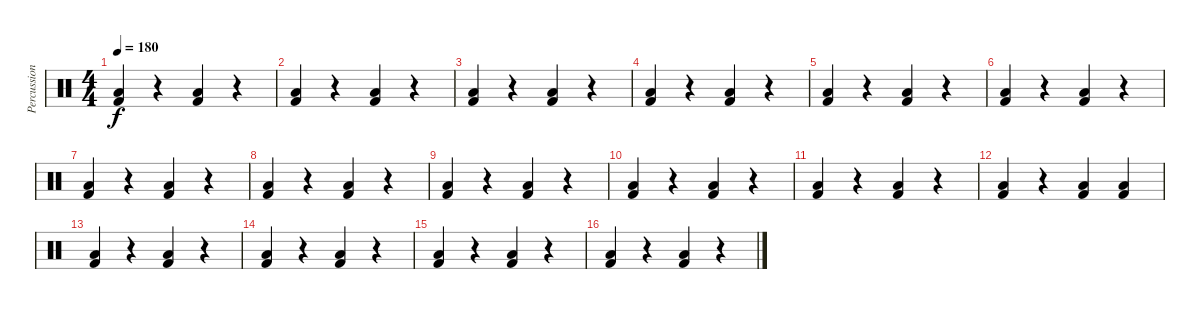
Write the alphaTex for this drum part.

\track ("Percussion" "Percussion") {instrument percussion}
\staff {score}
\articulation defaults
\ts (4 4)
\tempo 180
\clef neutral
\ks c
("Low Floor Tom (hit)" "Kick (hit) 2").4{dy f} r.4 ("Low Floor Tom (hit)" "Kick (hit) 2").4 r.4 |
("Low Floor Tom (hit)" "Kick (hit) 2").4 r.4 ("Low Floor Tom (hit)" "Kick (hit) 2").4 r.4 |
("Low Floor Tom (hit)" "Kick (hit) 2").4 r.4 ("Low Floor Tom (hit)" "Kick (hit) 2").4 r.4 |
("Low Floor Tom (hit)" "Kick (hit) 2").4 r.4 ("Low Floor Tom (hit)" "Kick (hit) 2").4 r.4 |
("Low Floor Tom (hit)" "Kick (hit) 2").4 r.4 ("Low Floor Tom (hit)" "Kick (hit) 2").4 r.4 |
("Low Floor Tom (hit)" "Kick (hit) 2").4 r.4 ("Low Floor Tom (hit)" "Kick (hit) 2").4 r.4 |
("Low Floor Tom (hit)" "Kick (hit) 2").4 r.4 ("Low Floor Tom (hit)" "Kick (hit) 2").4 r.4 |
("Low Floor Tom (hit)" "Kick (hit) 2").4 r.4 ("Low Floor Tom (hit)" "Kick (hit) 2").4 r.4 |
("Low Floor Tom (hit)" "Kick (hit) 2").4 r.4 ("Low Floor Tom (hit)" "Kick (hit) 2").4 r.4 |
("Low Floor Tom (hit)" "Kick (hit) 2").4 r.4 ("Low Floor Tom (hit)" "Kick (hit) 2").4 r.4 |
("Low Floor Tom (hit)" "Kick (hit) 2").4 r.4 ("Low Floor Tom (hit)" "Kick (hit) 2").4 r.4 |
("Low Floor Tom (hit)" "Kick (hit) 2").4 r.4 ("Low Floor Tom (hit)" "Kick (hit) 2").4 ("Low Floor Tom (hit)" "Kick (hit) 2").4 |
("Low Floor Tom (hit)" "Kick (hit) 2").4 r.4 ("Low Floor Tom (hit)" "Kick (hit) 2").4 r.4 |
("Low Floor Tom (hit)" "Kick (hit) 2").4 r.4 ("Low Floor Tom (hit)" "Kick (hit) 2").4 r.4 |
("Low Floor Tom (hit)" "Kick (hit) 2").4 r.4 ("Low Floor Tom (hit)" "Kick (hit) 2").4 r.4 |
("Low Floor Tom (hit)" "Kick (hit) 2").4 r.4 ("Low Floor Tom (hit)" "Kick (hit) 2").4 r.4
